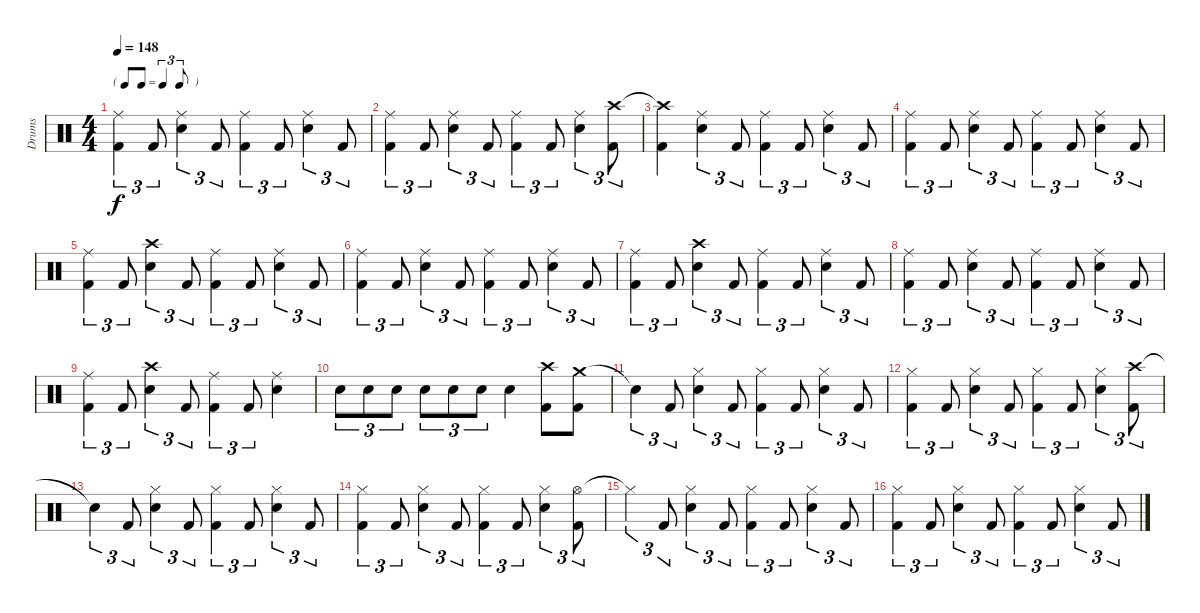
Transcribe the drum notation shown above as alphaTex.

\track ("Drums" "Drums") {instrument percussion}
\staff {score}
\articulation defaults
\ts (4 4)
\tf triplet8th
\tempo 148
\clef neutral
\ks c
("Ride (middle)" "Kick (hit) 2").4{tu (3 2) dy f} "Kick (hit) 2".8{tu (3 2)} ("Ride (middle)" "Snare (hit) 2").4{tu (3 2)} "Kick (hit) 2".8{tu (3 2)} ("Ride (middle)" "Kick (hit) 2").4{tu (3 2)} "Kick (hit) 2".8{tu (3 2)} ("Ride (middle)" "Snare (hit) 2").4{tu (3 2)} "Kick (hit) 2".8{tu (3 2)} |
("Ride (middle)" "Kick (hit) 2").4{tu (3 2)} "Kick (hit) 2".8{tu (3 2)} ("Ride (middle)" "Snare (hit) 2").4{tu (3 2)} "Kick (hit) 2".8{tu (3 2)} ("Ride (middle)" "Kick (hit) 2").4{tu (3 2)} "Kick (hit) 2".8{tu (3 2)} ("Ride (middle)" "Snare (hit) 2").4{tu (3 2)} ("Crash high (hit)" "Kick (hit) 2").8{tu (3 2)} |
("Crash high (hit)"{t} "Kick (hit) 2").4 ("Ride (middle)" "Snare (hit) 2").4{tu (3 2)} "Kick (hit) 2".8{tu (3 2)} ("Ride (middle)" "Kick (hit) 2").4{tu (3 2)} "Kick (hit) 2".8{tu (3 2)} ("Ride (middle)" "Snare (hit) 2").4{tu (3 2)} "Kick (hit) 2".8{tu (3 2)} |
("Ride (middle)" "Kick (hit) 2").4{tu (3 2)} "Kick (hit) 2".8{tu (3 2)} ("Ride (middle)" "Snare (hit) 2").4{tu (3 2)} "Kick (hit) 2".8{tu (3 2)} ("Ride (middle)" "Kick (hit) 2").4{tu (3 2)} "Kick (hit) 2".8{tu (3 2)} ("Ride (middle)" "Snare (hit) 2").4{tu (3 2)} "Kick (hit) 2".8{tu (3 2)} |
("Ride (middle)" "Kick (hit) 2").4{tu (3 2)} "Kick (hit) 2".8{tu (3 2)} ("Crash high (hit)" "Snare (hit) 2").4{tu (3 2)} "Kick (hit) 2".8{tu (3 2)} ("Ride (middle)" "Kick (hit) 2").4{tu (3 2)} "Kick (hit) 2".8{tu (3 2)} ("Ride (middle)" "Snare (hit) 2").4{tu (3 2)} "Kick (hit) 2".8{tu (3 2)} |
("Ride (middle)" "Kick (hit) 2").4{tu (3 2)} "Kick (hit) 2".8{tu (3 2)} ("Ride (middle)" "Snare (hit) 2").4{tu (3 2)} "Kick (hit) 2".8{tu (3 2)} ("Ride (middle)" "Kick (hit) 2").4{tu (3 2)} "Kick (hit) 2".8{tu (3 2)} ("Ride (middle)" "Snare (hit) 2").4{tu (3 2)} "Kick (hit) 2".8{tu (3 2)} |
("Ride (middle)" "Kick (hit) 2").4{tu (3 2)} "Kick (hit) 2".8{tu (3 2)} ("Crash high (hit)" "Snare (hit) 2").4{tu (3 2)} "Kick (hit) 2".8{tu (3 2)} ("Ride (middle)" "Kick (hit) 2").4{tu (3 2)} "Kick (hit) 2".8{tu (3 2)} ("Ride (middle)" "Snare (hit) 2").4{tu (3 2)} "Kick (hit) 2".8{tu (3 2)} |
("Ride (middle)" "Kick (hit) 2").4{tu (3 2)} "Kick (hit) 2".8{tu (3 2)} ("Ride (middle)" "Snare (hit) 2").4{tu (3 2)} "Kick (hit) 2".8{tu (3 2)} ("Ride (middle)" "Kick (hit) 2").4{tu (3 2)} "Kick (hit) 2".8{tu (3 2)} ("Ride (middle)" "Snare (hit) 2").4{tu (3 2)} "Kick (hit) 2".8{tu (3 2)} |
("Ride (middle)" "Kick (hit) 2").4{tu (3 2)} "Kick (hit) 2".8{tu (3 2)} ("Crash high (hit)" "Snare (hit) 2").4{tu (3 2)} "Kick (hit) 2".8{tu (3 2)} ("Ride (middle)" "Kick (hit) 2").4{tu (3 2)} "Kick (hit) 2".8{tu (3 2)} ("Ride (middle)" "Snare (hit) 2").4 |
"Snare (hit) 2".8{tu (3 2)} "Snare (hit) 2".8{tu (3 2)} "Snare (hit) 2".8{tu (3 2)} "Snare (hit) 2".8{tu (3 2)} "Snare (hit) 2".8{tu (3 2)} "Snare (hit) 2".8{tu (3 2)} "Snare (hit) 2".4 ("Crash high (hit)" "Kick (hit) 2").8 ("Crash medium (hit)" "Kick (hit) 2").8 |
"Snare (hit)"{t}.4{tu (3 2)} "Kick (hit) 2".8{tu (3 2)} ("Hi-Hat (closed)" "Snare (hit) 2").4{tu (3 2)} "Kick (hit) 2".8{tu (3 2)} ("Hi-Hat (closed)" "Kick (hit) 2").4{tu (3 2)} "Kick (hit) 2".8{tu (3 2)} ("Hi-Hat (closed)" "Snare (hit) 2").4{tu (3 2)} "Kick (hit) 2".8{tu (3 2)} |
("Hi-Hat (closed)" "Kick (hit) 2").4{tu (3 2)} "Kick (hit) 2".8{tu (3 2)} ("Hi-Hat (closed)" "Snare (hit) 2").4{tu (3 2)} "Kick (hit) 2".8{tu (3 2)} ("Hi-Hat (closed)" "Kick (hit) 2").4{tu (3 2)} "Kick (hit) 2".8{tu (3 2)} ("Hi-Hat (closed)" "Snare (hit) 2").4{tu (3 2)} ("Crash high (hit)" "Kick (hit) 2").8{tu (3 2)} |
"Snare (hit)"{t}.4{tu (3 2)} "Kick (hit) 2".8{tu (3 2)} ("Hi-Hat (closed)" "Snare (hit) 2").4{tu (3 2)} "Kick (hit) 2".8{tu (3 2)} ("Hi-Hat (closed)" "Kick (hit) 2").4{tu (3 2)} "Kick (hit) 2".8{tu (3 2)} ("Hi-Hat (closed)" "Snare (hit) 2").4{tu (3 2)} "Kick (hit) 2".8{tu (3 2)} |
("Hi-Hat (closed)" "Kick (hit) 2").4{tu (3 2)} "Kick (hit) 2".8{tu (3 2)} ("Hi-Hat (closed)" "Snare (hit) 2").4{tu (3 2)} "Kick (hit) 2".8{tu (3 2)} ("Hi-Hat (closed)" "Kick (hit) 2").4{tu (3 2)} "Kick (hit) 2".8{tu (3 2)} ("Hi-Hat (closed)" "Snare (hit) 2").4{tu (3 2)} ("Hi-Hat (open)" "Kick (hit) 2").8{tu (3 2)} |
"Hi-Hat (closed)"{t}.4{tu (3 2)} "Kick (hit) 2".8{tu (3 2)} ("Hi-Hat (closed)" "Snare (hit) 2").4{tu (3 2)} "Kick (hit) 2".8{tu (3 2)} ("Hi-Hat (closed)" "Kick (hit) 2").4{tu (3 2)} "Kick (hit) 2".8{tu (3 2)} ("Hi-Hat (closed)" "Snare (hit) 2").4{tu (3 2)} "Kick (hit) 2".8{tu (3 2)} |
("Hi-Hat (closed)" "Kick (hit) 2").4{tu (3 2)} "Kick (hit) 2".8{tu (3 2)} ("Hi-Hat (closed)" "Snare (hit) 2").4{tu (3 2)} "Kick (hit) 2".8{tu (3 2)} ("Hi-Hat (closed)" "Kick (hit) 2").4{tu (3 2)} "Kick (hit) 2".8{tu (3 2)} ("Hi-Hat (closed)" "Snare (hit) 2").4{tu (3 2)} "Kick (hit) 2".8{tu (3 2)}
